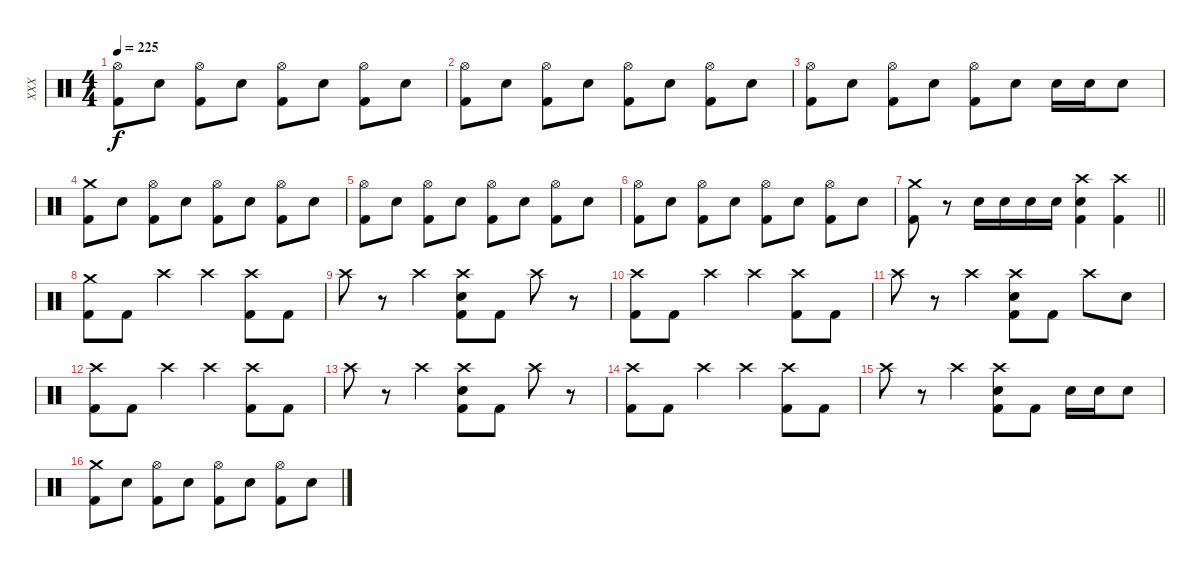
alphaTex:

\track ("XXX" "XXX") {instrument percussion}
\staff {score}
\articulation defaults
\ts (4 4)
\tempo 225
\clef neutral
\ks c
("Hi-Hat (open)" "Kick (hit) 2").8{dy f} "Electric Snare (hit)".8 ("Hi-Hat (open)" "Kick (hit) 2").8 "Electric Snare (hit)".8 ("Hi-Hat (open)" "Kick (hit) 2").8 "Electric Snare (hit)".8 ("Hi-Hat (open)" "Kick (hit) 2").8 "Electric Snare (hit)".8 |
("Hi-Hat (open)" "Kick (hit) 2").8 "Electric Snare (hit)".8 ("Hi-Hat (open)" "Kick (hit) 2").8 "Electric Snare (hit)".8 ("Hi-Hat (open)" "Kick (hit) 2").8 "Electric Snare (hit)".8 ("Hi-Hat (open)" "Kick (hit) 2").8 "Electric Snare (hit)".8 |
("Hi-Hat (open)" "Kick (hit) 2").8 "Electric Snare (hit)".8 ("Hi-Hat (open)" "Kick (hit) 2").8 "Electric Snare (hit)".8 ("Hi-Hat (open)" "Kick (hit) 2").8 "Electric Snare (hit)".8 "Electric Snare (hit)".16 "Electric Snare (hit)".16 "Electric Snare (hit)".8 |
("Crash medium (hit)" "Kick (hit) 2").8 "Electric Snare (hit)".8 ("Hi-Hat (open)" "Kick (hit) 2").8 "Electric Snare (hit)".8 ("Hi-Hat (open)" "Kick (hit) 2").8 "Electric Snare (hit)".8 ("Hi-Hat (open)" "Kick (hit) 2").8 "Electric Snare (hit)".8 |
("Hi-Hat (open)" "Kick (hit) 2").8 "Electric Snare (hit)".8 ("Hi-Hat (open)" "Kick (hit) 2").8 "Electric Snare (hit)".8 ("Hi-Hat (open)" "Kick (hit) 2").8 "Electric Snare (hit)".8 ("Hi-Hat (open)" "Kick (hit) 2").8 "Electric Snare (hit)".8 |
("Hi-Hat (open)" "Kick (hit) 2").8 "Electric Snare (hit)".8 ("Hi-Hat (open)" "Kick (hit) 2").8 "Electric Snare (hit)".8 ("Hi-Hat (open)" "Kick (hit) 2").8 "Electric Snare (hit)".8 ("Hi-Hat (open)" "Kick (hit) 2").8 "Electric Snare (hit)".8 |
\barLineRight lightlight
("Crash medium (hit)" "Kick (hit) 2").8 r.8 "Electric Snare (hit)".16 "Electric Snare (hit)".16 "Electric Snare (hit)".16 "Electric Snare (hit)".16 ("Crash high (hit)" "Electric Snare (hit)" "Kick (hit) 2").4 ("Crash high (hit)" "Kick (hit) 2").4 |
("Crash medium (hit)" "Kick (hit) 2").8 "Kick (hit) 2".8 "Crash high (hit)".4 "Crash high (hit)".4 ("Crash high (hit)" "Kick (hit) 2").8 "Kick (hit) 2".8 |
"Crash high (hit)".8 r.8 "Crash high (hit)".4 ("Crash high (hit)" "Electric Snare (hit)" "Kick (hit) 2").8 "Kick (hit) 2".8 "Crash high (hit)".8 r.8 |
("Crash high (hit)" "Kick (hit) 2").8 "Kick (hit) 2".8 "Crash high (hit)".4 "Crash high (hit)".4 ("Crash high (hit)" "Kick (hit) 2").8 "Kick (hit) 2".8 |
"Crash high (hit)".8 r.8 "Crash high (hit)".4 ("Crash high (hit)" "Electric Snare (hit)" "Kick (hit) 2").8 "Kick (hit) 2".8 "Crash high (hit)".8 "Electric Snare (hit)".8 |
("Crash high (hit)" "Kick (hit) 2").8 "Kick (hit) 2".8 "Crash high (hit)".4 "Crash high (hit)".4 ("Crash high (hit)" "Kick (hit) 2").8 "Kick (hit) 2".8 |
"Crash high (hit)".8 r.8 "Crash high (hit)".4 ("Crash high (hit)" "Electric Snare (hit)" "Kick (hit) 2").8 "Kick (hit) 2".8 "Crash high (hit)".8 r.8 |
("Crash high (hit)" "Kick (hit) 2").8 "Kick (hit) 2".8 "Crash high (hit)".4 "Crash high (hit)".4 ("Crash high (hit)" "Kick (hit) 2").8 "Kick (hit) 2".8 |
"Crash high (hit)".8 r.8 "Crash high (hit)".4 ("Crash high (hit)" "Electric Snare (hit)" "Kick (hit) 2").8 "Kick (hit) 2".8 "Electric Snare (hit)".16 "Electric Snare (hit)".16 "Electric Snare (hit)".8 |
("Crash medium (hit)" "Kick (hit) 2").8 "Electric Snare (hit)".8 ("Hi-Hat (open)" "Kick (hit) 2").8 "Electric Snare (hit)".8 ("Hi-Hat (open)" "Kick (hit) 2").8 "Electric Snare (hit)".8 ("Hi-Hat (open)" "Kick (hit) 2").8 "Electric Snare (hit)".8
